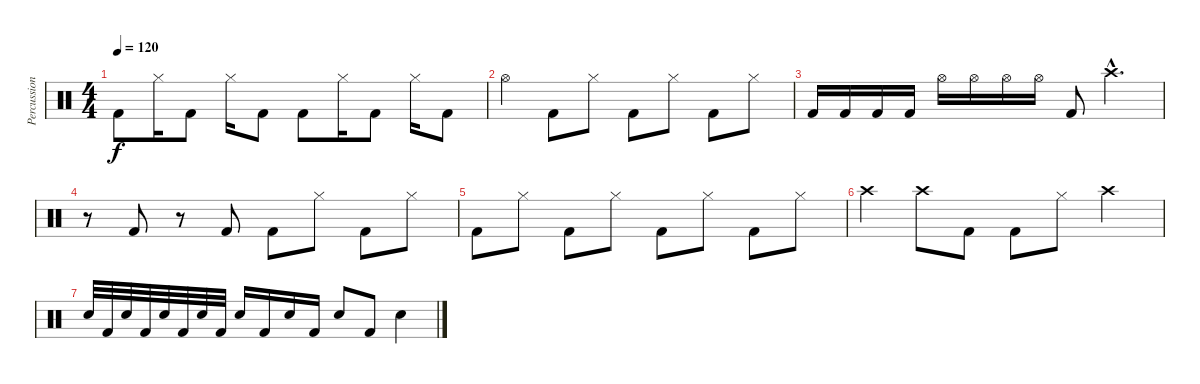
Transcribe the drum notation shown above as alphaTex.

\track ("Percussions" "Percussion") {instrument percussion}
\staff {score}
\articulation defaults
\ts (4 4)
\tempo 120
\clef neutral
\ks c "Kick (hit) 2".8{dy f} "Hi-Hat (closed)".16 "Kick (hit) 2".8 "Hi-Hat (closed)".16 "Kick (hit) 2".8 "Kick (hit) 2".8 "Hi-Hat (closed)".16 "Kick (hit) 2".8 "Hi-Hat (closed)".16 "Kick (hit) 2".8
|
"Hi-Hat (open)".4 "Kick (hit) 2".8 "Hi-Hat (closed)".8 "Kick (hit) 2".8 "Hi-Hat (closed)".8 "Kick (hit) 2".8 "Hi-Hat (closed)".8 |
"Kick (hit) 2".16 "Kick (hit) 2".16 "Kick (hit) 2".16 "Kick (hit) 2".16 "Hi-Hat (open)".16 "Hi-Hat (open)".16 "Hi-Hat (open)".16 "Hi-Hat (open)".16 "Kick (hit) 2".8 "Crash high (hit)"{hac}.4{d} |
r.8 "Kick (hit) 2".8 r.8 "Kick (hit) 2".8 "Kick (hit) 2".8 "Hi-Hat (closed)".8 "Kick (hit) 2".8 "Hi-Hat (closed)".8 |
"Kick (hit) 2".8 "Hi-Hat (closed)".8 "Kick (hit) 2".8 "Hi-Hat (closed)".8 "Kick (hit) 2".8 "Hi-Hat (closed)".8 "Kick (hit) 2".8 "Hi-Hat (closed)".8 |
"Crash high (hit)".4 "Crash high (hit)".8 "Kick (hit) 2".8 "Kick (hit) 2".8 "Hi-Hat (closed)".8 "Crash high (hit)".4 |
"Snare (hit) 2".32 "Kick (hit) 2".32 "Snare (hit) 2".32 "Kick (hit) 2".32 "Snare (hit) 2".32 "Kick (hit) 2".32 "Snare (hit) 2".32 "Kick (hit) 2".32 "Snare (hit) 2".16 "Kick (hit) 2".16 "Snare (hit) 2".16 "Kick (hit) 2".16 "Snare (hit) 2".8 "Kick (hit) 2".8 "Snare (hit) 2".4
